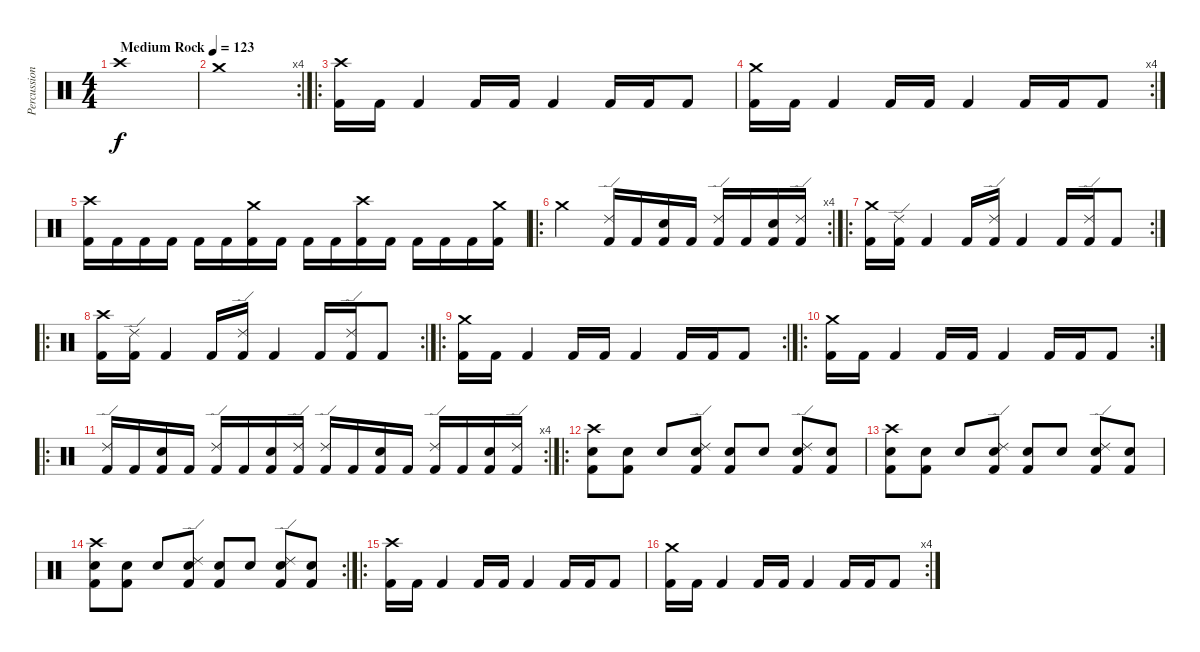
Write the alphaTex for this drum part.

\track ("Percussion" "Percussion") {instrument percussion}
\staff {score}
\articulation defaults
\ts (4 4)
\tempo (123 "Medium Rock")
\clef neutral
\ks c "Crash high (hit)".1{dy f}
|
\rc 4 "Crash medium (hit)".1
|
\ro
("Crash high (hit)" "Kick (hit) 2").16 "Kick (hit) 2".16 "Kick (hit) 2".4 "Kick (hit) 2".16 "Kick (hit) 2".16 "Kick (hit) 2".4 "Kick (hit) 2".16 "Kick (hit) 2".16 "Kick (hit) 2".8 |
\rc 4
("Crash medium (hit)" "Kick (hit) 2").16 "Kick (hit) 2".16 "Kick (hit) 2".4 "Kick (hit) 2".16 "Kick (hit) 2".16 "Kick (hit) 2".4 "Kick (hit) 2".16 "Kick (hit) 2".16 "Kick (hit) 2".8 |
("Crash high (hit)" "Kick (hit) 2").16 "Kick (hit) 2".16 "Kick (hit) 2".16 "Kick (hit) 2".16 "Kick (hit) 2".16 "Kick (hit) 2".16 ("Crash medium (hit)" "Kick (hit) 2").16 "Kick (hit) 2".16 "Kick (hit) 2".16 "Kick (hit) 2".16 ("Crash high (hit)" "Kick (hit) 2").16 "Kick (hit) 2".16 "Kick (hit) 2".16 "Kick (hit) 2".16 "Kick (hit) 2".16 ("Crash medium (hit)" "Kick (hit) 2").16 |
\ro
\rc 4 "Crash medium (hit)".2
("Ride (edge) 2" "Kick (hit) 2").16 "Kick (hit) 2".16 ("Electric Snare (hit)" "Kick (hit) 2").16 "Kick (hit) 2".16 ("Ride (edge) 2" "Kick (hit) 2").16 "Kick (hit) 2".16 ("Electric Snare (hit)" "Kick (hit) 2").16 ("Ride (edge) 2" "Kick (hit) 2").16 |
\ro
\rc 2
("Crash medium (hit)" "Kick (hit) 2").16 ("Ride (edge) 2" "Kick (hit) 2").16 "Kick (hit) 2".4 "Kick (hit) 2".16 ("Ride (edge) 2" "Kick (hit) 2").16 "Kick (hit) 2".4 "Kick (hit) 2".16 ("Ride (edge) 2" "Kick (hit) 2").16 "Kick (hit) 2".8 |
\ro
\rc 2
("Crash high (hit)" "Kick (hit) 2").16 ("Ride (edge) 2" "Kick (hit) 2").16 "Kick (hit) 2".4 "Kick (hit) 2".16 ("Ride (edge) 2" "Kick (hit) 2").16 "Kick (hit) 2".4 "Kick (hit) 2".16 ("Ride (edge) 2" "Kick (hit) 2").16 "Kick (hit) 2".8 |
\ro
\rc 2
("Crash medium (hit)" "Kick (hit) 2").16 "Kick (hit) 2".16 "Kick (hit) 2".4 "Kick (hit) 2".16 "Kick (hit) 2".16 "Kick (hit) 2".4 "Kick (hit) 2".16 "Kick (hit) 2".16 "Kick (hit) 2".8 |
\ro
\rc 2
("Crash medium (hit)" "Kick (hit) 2").16 "Kick (hit) 2".16 "Kick (hit) 2".4 "Kick (hit) 2".16 "Kick (hit) 2".16 "Kick (hit) 2".4 "Kick (hit) 2".16 "Kick (hit) 2".16 "Kick (hit) 2".8 |
\ro
\rc 4
("Ride (edge) 2" "Kick (hit) 2").16 "Kick (hit) 2".16 ("Electric Snare (hit)" "Kick (hit) 2").16 "Kick (hit) 2".16 ("Ride (edge) 2" "Kick (hit) 2").16 "Kick (hit) 2".16 ("Electric Snare (hit)" "Kick (hit) 2").16 ("Ride (edge) 2" "Kick (hit) 2").16 ("Ride (edge) 2" "Kick (hit) 2").16 "Kick (hit) 2".16 ("Electric Snare (hit)" "Kick (hit) 2").16 "Kick (hit) 2".16 ("Ride (edge) 2" "Kick (hit) 2").16 "Kick (hit) 2".16 ("Electric Snare (hit)" "Kick (hit) 2").16 ("Ride (edge) 2" "Kick (hit) 2").16 |
\ro
("Crash high (hit)" "Electric Snare (hit)" "Kick (hit) 2").8 ("Electric Snare (hit)" "Kick (hit) 2").8 "Electric Snare (hit)".8 ("Ride (edge) 2" "Electric Snare (hit)" "Kick (hit) 2").8 ("Electric Snare (hit)" "Kick (hit) 2").8 "Electric Snare (hit)".8 ("Ride (edge) 2" "Electric Snare (hit)" "Kick (hit) 2").8 ("Electric Snare (hit)" "Kick (hit) 2").8 |
("Crash high (hit)" "Electric Snare (hit)" "Kick (hit) 2").8 ("Electric Snare (hit)" "Kick (hit) 2").8 "Electric Snare (hit)".8 ("Ride (edge) 2" "Electric Snare (hit)" "Kick (hit) 2").8 ("Electric Snare (hit)" "Kick (hit) 2").8 "Electric Snare (hit)".8 ("Ride (edge) 2" "Electric Snare (hit)" "Kick (hit) 2").8 ("Electric Snare (hit)" "Kick (hit) 2").8 |
\rc 2
("Crash high (hit)" "Electric Snare (hit)" "Kick (hit) 2").8 ("Electric Snare (hit)" "Kick (hit) 2").8 "Electric Snare (hit)".8 ("Ride (edge) 2" "Electric Snare (hit)" "Kick (hit) 2").8 ("Electric Snare (hit)" "Kick (hit) 2").8 "Electric Snare (hit)".8 ("Ride (edge) 2" "Electric Snare (hit)" "Kick (hit) 2").8 ("Electric Snare (hit)" "Kick (hit) 2").8 |
\ro
("Crash high (hit)" "Kick (hit) 2").16 "Kick (hit) 2".16 "Kick (hit) 2".4 "Kick (hit) 2".16 "Kick (hit) 2".16 "Kick (hit) 2".4 "Kick (hit) 2".16 "Kick (hit) 2".16 "Kick (hit) 2".8 |
\rc 4
("Crash medium (hit)" "Kick (hit) 2").16 "Kick (hit) 2".16 "Kick (hit) 2".4 "Kick (hit) 2".16 "Kick (hit) 2".16 "Kick (hit) 2".4 "Kick (hit) 2".16 "Kick (hit) 2".16 "Kick (hit) 2".8
